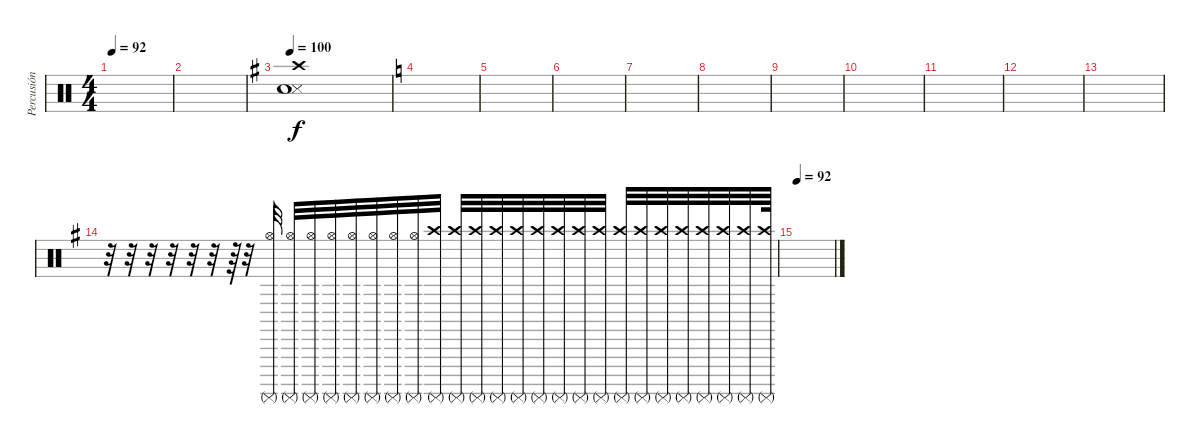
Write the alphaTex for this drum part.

\track ("Percusión Pista Auxiliar" "Percusión ") {instrument percussion}
\staff {score}
\articulation defaults
\ts (4 4)
\tempo 92
\clef neutral
\ks c
|
|
\tempo 100
\ks g
("Snare (side stick) 3" "Snare (hit) 2" "Crash high (hit)").1 |
\ks c
|
|
|
|
|
|
|
|
|
|
\ks g
r.32 r.32 r.32 r.32 r.32 r.32 r.64{volume 3} r.32{volume 13} ("Surdo (mute)" "Hi-Hat (open)").32 ("Surdo (mute)" "Hi-Hat (open)").32 ("Surdo (mute)" "Hi-Hat (open)").32 ("Surdo (mute)" "Hi-Hat (open)").32 ("Surdo (mute)" "Hi-Hat (open)").32 ("Surdo (mute)" "Hi-Hat (open)").32 ("Surdo (mute)" "Hi-Hat (open)").32 ("Surdo (mute)" "Hi-Hat (open)").32 ("Surdo (mute)" "Crash high (hit)").32 ("Surdo (mute)" "Crash high (hit)").32 ("Surdo (mute)" "Crash high (hit)").32 ("Surdo (mute)" "Crash high (hit)").32 ("Surdo (mute)" "Crash high (hit)").32 ("Surdo (mute)" "Crash high (hit)").32 ("Surdo (mute)" "Crash high (hit)").32 ("Surdo (mute)" "Crash high (hit)").32 ("Surdo (mute)" "Crash high (hit)").32 ("Surdo (mute)" "Crash high (hit)").32 ("Surdo (mute)" "Crash high (hit)").32 ("Surdo (mute)" "Crash high (hit)").32 ("Surdo (mute)" "Crash high (hit)").32 ("Surdo (mute)" "Crash high (hit)").32 ("Surdo (mute)" "Crash high (hit)").32 ("Surdo (mute)" "Crash high (hit)").32 ("Surdo (mute)" "Crash high (hit)").64 |
\tempo 92
